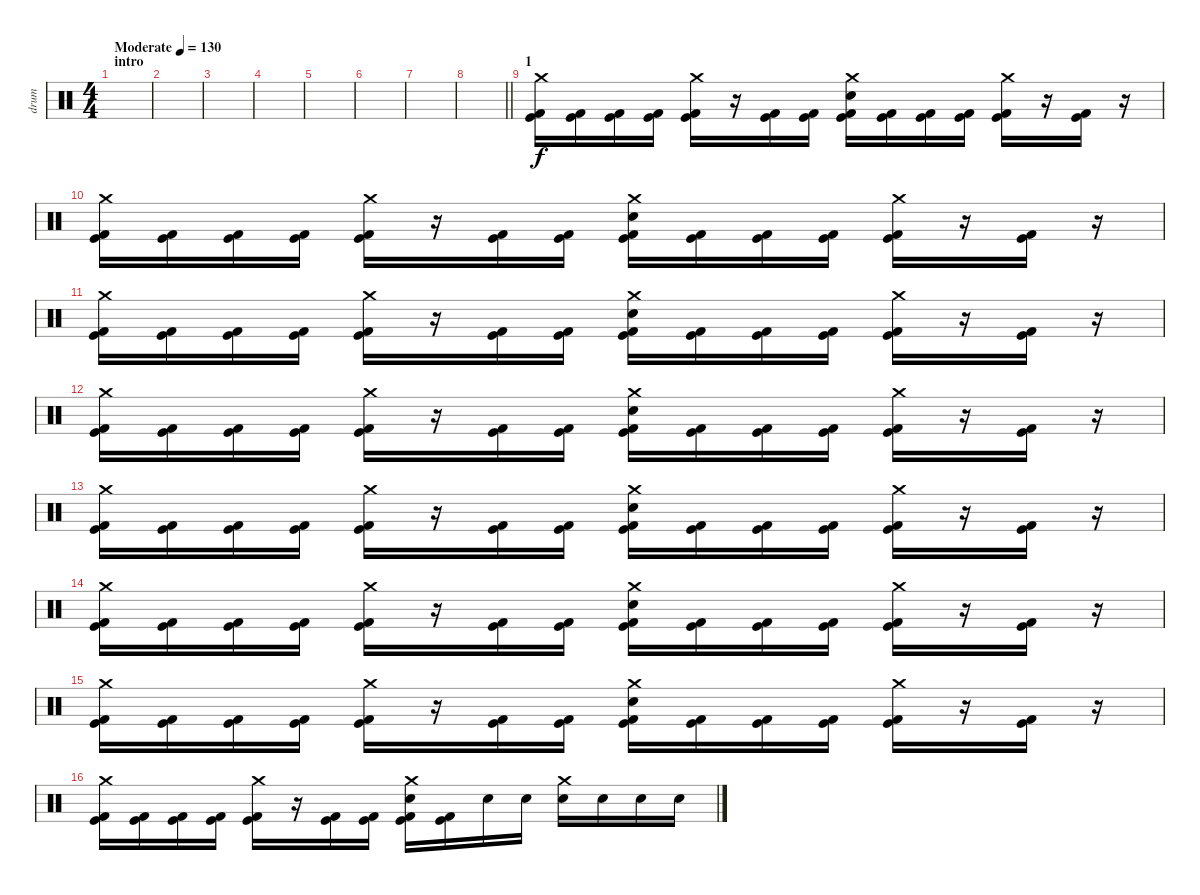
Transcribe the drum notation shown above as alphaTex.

\track ("drum" "drum") {instrument percussion}
\staff {score}
\articulation defaults
\ts (4 4)
\section ("" "intro")
\tempo (130 "Moderate")
\clef neutral
\ks c
|
|
|
|
|
|
|
\barLineRight lightlight
|
\section ("" "1")
("Crash medium (hit)" "Kick (hit)" "Kick (hit) 2").16 ("Kick (hit)" "Kick (hit) 2").16 ("Kick (hit)" "Kick (hit) 2").16 ("Kick (hit)" "Kick (hit) 2").16 ("Crash medium (hit)" "Kick (hit)" "Kick (hit) 2").16 r.16 ("Kick (hit)" "Kick (hit) 2").16 ("Kick (hit)" "Kick (hit) 2").16 ("Crash medium (hit)" "Snare (hit) 2" "Kick (hit)" "Kick (hit) 2").16 ("Kick (hit)" "Kick (hit) 2").16 ("Kick (hit)" "Kick (hit) 2").16 ("Kick (hit)" "Kick (hit) 2").16 ("Crash medium (hit)" "Kick (hit)" "Kick (hit) 2").16 r.16 ("Kick (hit)" "Kick (hit) 2").16 r.16 |
("Crash medium (hit)" "Kick (hit)" "Kick (hit) 2").16 ("Kick (hit)" "Kick (hit) 2").16 ("Kick (hit)" "Kick (hit) 2").16 ("Kick (hit)" "Kick (hit) 2").16 ("Crash medium (hit)" "Kick (hit)" "Kick (hit) 2").16 r.16 ("Kick (hit)" "Kick (hit) 2").16 ("Kick (hit)" "Kick (hit) 2").16 ("Crash medium (hit)" "Snare (hit) 2" "Kick (hit)" "Kick (hit) 2").16 ("Kick (hit)" "Kick (hit) 2").16 ("Kick (hit)" "Kick (hit) 2").16 ("Kick (hit)" "Kick (hit) 2").16 ("Crash medium (hit)" "Kick (hit)" "Kick (hit) 2").16 r.16 ("Kick (hit)" "Kick (hit) 2").16 r.16 |
("Crash medium (hit)" "Kick (hit)" "Kick (hit) 2").16 ("Kick (hit)" "Kick (hit) 2").16 ("Kick (hit)" "Kick (hit) 2").16 ("Kick (hit)" "Kick (hit) 2").16 ("Crash medium (hit)" "Kick (hit)" "Kick (hit) 2").16 r.16 ("Kick (hit)" "Kick (hit) 2").16 ("Kick (hit)" "Kick (hit) 2").16 ("Crash medium (hit)" "Snare (hit) 2" "Kick (hit)" "Kick (hit) 2").16 ("Kick (hit)" "Kick (hit) 2").16 ("Kick (hit)" "Kick (hit) 2").16 ("Kick (hit)" "Kick (hit) 2").16 ("Crash medium (hit)" "Kick (hit)" "Kick (hit) 2").16 r.16 ("Kick (hit)" "Kick (hit) 2").16 r.16 |
("Crash medium (hit)" "Kick (hit)" "Kick (hit) 2").16 ("Kick (hit)" "Kick (hit) 2").16 ("Kick (hit)" "Kick (hit) 2").16 ("Kick (hit)" "Kick (hit) 2").16 ("Crash medium (hit)" "Kick (hit)" "Kick (hit) 2").16 r.16 ("Kick (hit)" "Kick (hit) 2").16 ("Kick (hit)" "Kick (hit) 2").16 ("Crash medium (hit)" "Snare (hit) 2" "Kick (hit)" "Kick (hit) 2").16 ("Kick (hit)" "Kick (hit) 2").16 ("Kick (hit)" "Kick (hit) 2").16 ("Kick (hit)" "Kick (hit) 2").16 ("Crash medium (hit)" "Kick (hit)" "Kick (hit) 2").16 r.16 ("Kick (hit)" "Kick (hit) 2").16 r.16 |
("Crash medium (hit)" "Kick (hit)" "Kick (hit) 2").16 ("Kick (hit)" "Kick (hit) 2").16 ("Kick (hit)" "Kick (hit) 2").16 ("Kick (hit)" "Kick (hit) 2").16 ("Crash medium (hit)" "Kick (hit)" "Kick (hit) 2").16 r.16 ("Kick (hit)" "Kick (hit) 2").16 ("Kick (hit)" "Kick (hit) 2").16 ("Crash medium (hit)" "Snare (hit) 2" "Kick (hit)" "Kick (hit) 2").16 ("Kick (hit)" "Kick (hit) 2").16 ("Kick (hit)" "Kick (hit) 2").16 ("Kick (hit)" "Kick (hit) 2").16 ("Crash medium (hit)" "Kick (hit)" "Kick (hit) 2").16 r.16 ("Kick (hit)" "Kick (hit) 2").16 r.16 |
("Crash medium (hit)" "Kick (hit)" "Kick (hit) 2").16 ("Kick (hit)" "Kick (hit) 2").16 ("Kick (hit)" "Kick (hit) 2").16 ("Kick (hit)" "Kick (hit) 2").16 ("Crash medium (hit)" "Kick (hit)" "Kick (hit) 2").16 r.16 ("Kick (hit)" "Kick (hit) 2").16 ("Kick (hit)" "Kick (hit) 2").16 ("Crash medium (hit)" "Snare (hit) 2" "Kick (hit)" "Kick (hit) 2").16 ("Kick (hit)" "Kick (hit) 2").16 ("Kick (hit)" "Kick (hit) 2").16 ("Kick (hit)" "Kick (hit) 2").16 ("Crash medium (hit)" "Kick (hit)" "Kick (hit) 2").16 r.16 ("Kick (hit)" "Kick (hit) 2").16 r.16 |
("Crash medium (hit)" "Kick (hit)" "Kick (hit) 2").16 ("Kick (hit)" "Kick (hit) 2").16 ("Kick (hit)" "Kick (hit) 2").16 ("Kick (hit)" "Kick (hit) 2").16 ("Crash medium (hit)" "Kick (hit)" "Kick (hit) 2").16 r.16 ("Kick (hit)" "Kick (hit) 2").16 ("Kick (hit)" "Kick (hit) 2").16 ("Crash medium (hit)" "Snare (hit) 2" "Kick (hit)" "Kick (hit) 2").16 ("Kick (hit)" "Kick (hit) 2").16 ("Kick (hit)" "Kick (hit) 2").16 ("Kick (hit)" "Kick (hit) 2").16 ("Crash medium (hit)" "Kick (hit)" "Kick (hit) 2").16 r.16 ("Kick (hit)" "Kick (hit) 2").16 r.16 |
("Crash medium (hit)" "Kick (hit)" "Kick (hit) 2").16 ("Kick (hit)" "Kick (hit) 2").16 ("Kick (hit)" "Kick (hit) 2").16 ("Kick (hit)" "Kick (hit) 2").16 ("Crash medium (hit)" "Kick (hit)" "Kick (hit) 2").16 r.16 ("Kick (hit)" "Kick (hit) 2").16 ("Kick (hit)" "Kick (hit) 2").16 ("Crash medium (hit)" "Snare (hit) 2" "Kick (hit)" "Kick (hit) 2").16 ("Kick (hit)" "Kick (hit) 2").16 "Snare (hit) 2".16 "Snare (hit) 2".16 ("Crash medium (hit)" "Snare (hit) 2").16 "Snare (hit) 2".16 "Snare (hit) 2".16 "Snare (hit) 2".16
